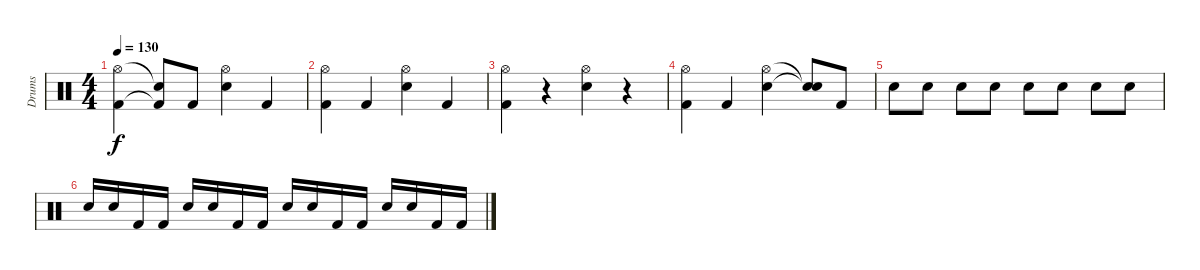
\track ("Drums" "Drums") {instrument percussion}
\staff {score}
\articulation defaults
\ts (4 4)
\tempo 130
\clef neutral
\ks c
("Hi-Hat (open)" "Kick (hit) 2").4{dy f} ("Snare (hit)"{t} "Kick (hit) 2"{t}).8 "Kick (hit) 2".8 ("Hi-Hat (open)" "Electric Snare (hit)").4 "Kick (hit) 2".4 |
("Hi-Hat (open)" "Kick (hit) 2").4 "Kick (hit) 2".4 ("Hi-Hat (open)" "Electric Snare (hit)").4 "Kick (hit) 2".4 |
("Hi-Hat (open)" "Kick (hit) 2").4{volume 1} r.4 ("Hi-Hat (open)" "Electric Snare (hit)").4 r.4 |
("Hi-Hat (open)" "Kick (hit) 2").4 "Kick (hit) 2".4 ("Hi-Hat (open)" "Electric Snare (hit)").4 ("Snare (hit)"{t} "Snare (hit)"{t}).8 "Kick (hit) 2".8 |
"Electric Snare (hit)".8 "Electric Snare (hit)".8 "Electric Snare (hit)".8 "Electric Snare (hit)".8 "Electric Snare (hit)".8 "Electric Snare (hit)".8 "Electric Snare (hit)".8 "Electric Snare (hit)".8 |
"Electric Snare (hit)".16 "Electric Snare (hit)".16 "Kick (hit) 2".16 "Kick (hit) 2".16 "Electric Snare (hit)".16 "Electric Snare (hit)".16 "Kick (hit) 2".16 "Kick (hit) 2".16 "Electric Snare (hit)".16 "Electric Snare (hit)".16 "Kick (hit) 2".16 "Kick (hit) 2".16 "Electric Snare (hit)".16 "Electric Snare (hit)".16 "Kick (hit) 2".16 "Kick (hit) 2".16
